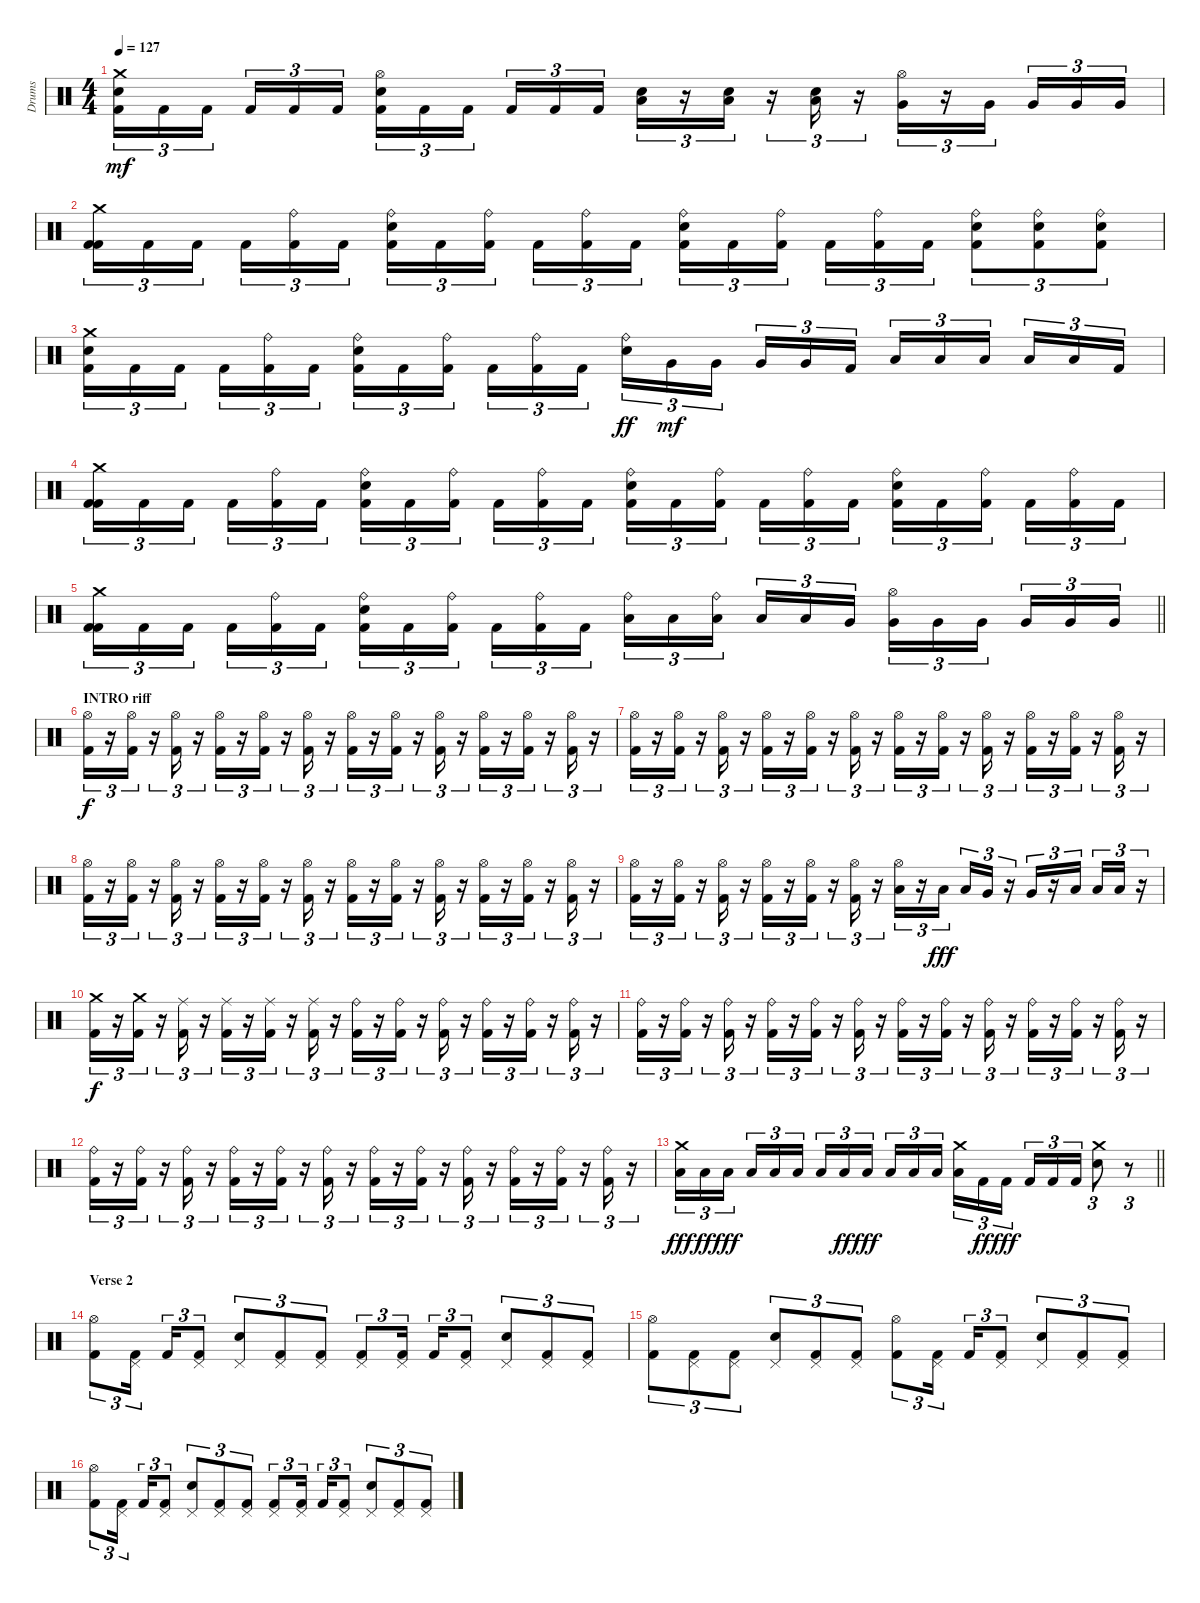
\track ("Drums" "Drums") {instrument percussion}
\staff {score}
\articulation defaults
\ts (4 4)
\tempo 127
\clef neutral
\ks c
("Crash medium (hit)" "Snare (hit) 2" "Kick (hit) 2").16{tu (3 2) dy mf} "Kick (hit) 2".16{tu (3 2)} "Kick (hit) 2".16{tu (3 2) beam splitsecondary} "Kick (hit) 2".16{tu (3 2)} "Kick (hit) 2".16{tu (3 2)} "Kick (hit) 2".16{tu (3 2)} ("Hi-Hat (open)" "Snare (hit) 2" "Kick (hit) 2").16{tu (3 2)} "Kick (hit) 2".16{tu (3 2)} "Kick (hit) 2".16{tu (3 2) beam splitsecondary} "Kick (hit) 2".16{tu (3 2)} "Kick (hit) 2".16{tu (3 2)} "Kick (hit) 2".16{tu (3 2)} ("Snare (hit) 2" "Low Tom (hit)").16{tu (3 2)} r.16{tu (3 2)} ("Snare (hit) 2" "Low Tom (hit)").16{tu (3 2)} r.16{tu (3 2)} ("Snare (hit) 2" "Low Tom (hit)").16{tu (3 2)} r.16{tu (3 2)} ("Hi-Hat (open)" "Very Low Tom (hit)").16{tu (3 2)} r.16{tu (3 2)} "Very Low Tom (hit)".16{tu (3 2) beam splitsecondary} "Very Low Tom (hit)".16{tu (3 2)} "Very Low Tom (hit)".16{tu (3 2)} "Very Low Tom (hit)".16{tu (3 2)} |
("Crash medium (hit)" "Kick (hit) 2" "Kick (hit) 2").16{tu (3 2)} "Kick (hit) 2".16{tu (3 2)} "Kick (hit) 2".16{tu (3 2) beam splitsecondary} "Kick (hit) 2".16{tu (3 2)} ("Ride (bell)" "Kick (hit) 2").16{tu (3 2)} "Kick (hit) 2".16{tu (3 2)} ("Ride (bell)" "Snare (hit) 2" "Kick (hit) 2").16{tu (3 2)} "Kick (hit) 2".16{tu (3 2)} ("Ride (bell)" "Kick (hit) 2").16{tu (3 2) beam splitsecondary} "Kick (hit) 2".16{tu (3 2)} ("Ride (bell)" "Kick (hit) 2").16{tu (3 2)} "Kick (hit) 2".16{tu (3 2)} ("Ride (bell)" "Snare (hit) 2" "Kick (hit) 2").16{tu (3 2)} "Kick (hit) 2".16{tu (3 2)} ("Ride (bell)" "Kick (hit) 2").16{tu (3 2) beam splitsecondary} "Kick (hit) 2".16{tu (3 2)} ("Ride (bell)" "Kick (hit) 2").16{tu (3 2)} "Kick (hit) 2".16{tu (3 2)} ("Ride (bell)" "Snare (hit) 2" "Kick (hit) 2").8{tu (3 2)} ("Ride (bell)" "Snare (hit) 2" "Kick (hit) 2").8{tu (3 2)} ("Ride (bell)" "Snare (hit) 2" "Kick (hit) 2").8{tu (3 2)} |
("Crash medium (hit)" "Snare (hit) 2" "Kick (hit) 2").16{tu (3 2)} "Kick (hit) 2".16{tu (3 2)} "Kick (hit) 2".16{tu (3 2) beam splitsecondary} "Kick (hit) 2".16{tu (3 2)} ("Ride (bell)" "Kick (hit) 2").16{tu (3 2)} "Kick (hit) 2".16{tu (3 2)} ("Ride (bell)" "Snare (hit) 2" "Kick (hit) 2").16{tu (3 2)} "Kick (hit) 2".16{tu (3 2)} ("Ride (bell)" "Kick (hit) 2").16{tu (3 2) beam splitsecondary} "Kick (hit) 2".16{tu (3 2)} ("Ride (bell)" "Kick (hit) 2").16{tu (3 2)} "Kick (hit) 2".16{tu (3 2)} ("Ride (bell)" "Snare (hit) 2").16{tu (3 2) dy ff} "Very Low Tom (hit)".16{tu (3 2) dy mf} "Very Low Tom (hit)".16{tu (3 2) beam splitsecondary} "Very Low Tom (hit)".16{tu (3 2)} "Very Low Tom (hit)".16{tu (3 2)} "Kick (hit) 2".16{tu (3 2)} "Low Floor Tom (hit)".16{tu (3 2)} "Low Floor Tom (hit)".16{tu (3 2)} "Low Floor Tom (hit)".16{tu (3 2) beam splitsecondary} "Low Floor Tom (hit)".16{tu (3 2)} "Low Floor Tom (hit)".16{tu (3 2)} "Kick (hit) 2".16{tu (3 2)} |
("Crash medium (hit)" "Kick (hit) 2" "Kick (hit) 2").16{tu (3 2)} "Kick (hit) 2".16{tu (3 2)} "Kick (hit) 2".16{tu (3 2) beam splitsecondary} "Kick (hit) 2".16{tu (3 2)} ("Ride (bell)" "Kick (hit) 2").16{tu (3 2)} "Kick (hit) 2".16{tu (3 2)} ("Ride (bell)" "Snare (hit) 2" "Kick (hit) 2").16{tu (3 2)} "Kick (hit) 2".16{tu (3 2)} ("Ride (bell)" "Kick (hit) 2").16{tu (3 2) beam splitsecondary} "Kick (hit) 2".16{tu (3 2)} ("Ride (bell)" "Kick (hit) 2").16{tu (3 2)} "Kick (hit) 2".16{tu (3 2)} ("Ride (bell)" "Snare (hit) 2" "Kick (hit) 2").16{tu (3 2)} "Kick (hit) 2".16{tu (3 2)} ("Ride (bell)" "Kick (hit) 2").16{tu (3 2) beam splitsecondary} "Kick (hit) 2".16{tu (3 2)} ("Ride (bell)" "Kick (hit) 2").16{tu (3 2)} "Kick (hit) 2".16{tu (3 2)} ("Ride (bell)" "Snare (hit) 2" "Kick (hit) 2").16{tu (3 2)} "Kick (hit) 2".16{tu (3 2)} ("Ride (bell)" "Kick (hit) 2").16{tu (3 2) beam splitsecondary} "Kick (hit) 2".16{tu (3 2)} ("Ride (bell)" "Kick (hit) 2").16{tu (3 2)} "Kick (hit) 2".16{tu (3 2)} |
\barLineRight lightlight
("Crash medium (hit)" "Kick (hit) 2" "Kick (hit) 2").16{tu (3 2)} "Kick (hit) 2".16{tu (3 2)} "Kick (hit) 2".16{tu (3 2) beam splitsecondary} "Kick (hit) 2".16{tu (3 2)} ("Ride (bell)" "Kick (hit) 2").16{tu (3 2)} "Kick (hit) 2".16{tu (3 2)} ("Ride (bell)" "Snare (hit) 2" "Kick (hit) 2").16{tu (3 2)} "Kick (hit) 2".16{tu (3 2)} ("Ride (bell)" "Kick (hit) 2").16{tu (3 2) beam splitsecondary} "Kick (hit) 2".16{tu (3 2)} ("Ride (bell)" "Kick (hit) 2").16{tu (3 2)} "Kick (hit) 2".16{tu (3 2)} ("Ride (bell)" "Low Tom (hit)").16{tu (3 2)} "Low Tom (hit)".16{tu (3 2)} ("Ride (bell)" "Low Tom (hit)").16{tu (3 2) beam splitsecondary} "Low Tom (hit)".16{tu (3 2)} "Low Tom (hit)".16{tu (3 2)} "Very Low Tom (hit)".16{tu (3 2)} ("Hi-Hat (open)" "Very Low Tom (hit)").16{tu (3 2)} "Very Low Tom (hit)".16{tu (3 2)} "Very Low Tom (hit)".16{tu (3 2) beam splitsecondary} "Very Low Tom (hit)".16{tu (3 2)} "Very Low Tom (hit)".16{tu (3 2)} "Very Low Tom (hit)".16{tu (3 2)} |
\section ("" "INTRO riff")
("Hi-Hat (open)" "Kick (hit) 2").16{tu (3 2) dy f} r.16{tu (3 2)} ("Hi-Hat (open)" "Kick (hit) 2").16{tu (3 2)} r.16{tu (3 2)} ("Hi-Hat (open)" "Kick (hit) 2").16{tu (3 2)} r.16{tu (3 2)} ("Hi-Hat (open)" "Kick (hit) 2").16{tu (3 2)} r.16{tu (3 2)} ("Hi-Hat (open)" "Kick (hit) 2").16{tu (3 2)} r.16{tu (3 2)} ("Hi-Hat (open)" "Kick (hit) 2").16{tu (3 2)} r.16{tu (3 2)} ("Hi-Hat (open)" "Kick (hit) 2").16{tu (3 2)} r.16{tu (3 2)} ("Hi-Hat (open)" "Kick (hit) 2").16{tu (3 2)} r.16{tu (3 2)} ("Hi-Hat (open)" "Kick (hit) 2").16{tu (3 2)} r.16{tu (3 2)} ("Hi-Hat (open)" "Kick (hit) 2").16{tu (3 2)} r.16{tu (3 2)} ("Hi-Hat (open)" "Kick (hit) 2").16{tu (3 2)} r.16{tu (3 2)} ("Hi-Hat (open)" "Kick (hit) 2").16{tu (3 2)} r.16{tu (3 2)} |
("Hi-Hat (open)" "Kick (hit) 2").16{tu (3 2)} r.16{tu (3 2)} ("Hi-Hat (open)" "Kick (hit) 2").16{tu (3 2)} r.16{tu (3 2)} ("Hi-Hat (open)" "Kick (hit) 2").16{tu (3 2)} r.16{tu (3 2)} ("Hi-Hat (open)" "Kick (hit) 2").16{tu (3 2)} r.16{tu (3 2)} ("Hi-Hat (open)" "Kick (hit) 2").16{tu (3 2)} r.16{tu (3 2)} ("Hi-Hat (open)" "Kick (hit) 2").16{tu (3 2)} r.16{tu (3 2)} ("Hi-Hat (open)" "Kick (hit) 2").16{tu (3 2)} r.16{tu (3 2)} ("Hi-Hat (open)" "Kick (hit) 2").16{tu (3 2)} r.16{tu (3 2)} ("Hi-Hat (open)" "Kick (hit) 2").16{tu (3 2)} r.16{tu (3 2)} ("Hi-Hat (open)" "Kick (hit) 2").16{tu (3 2)} r.16{tu (3 2)} ("Hi-Hat (open)" "Kick (hit) 2").16{tu (3 2)} r.16{tu (3 2)} ("Hi-Hat (open)" "Kick (hit) 2").16{tu (3 2)} r.16{tu (3 2)} |
("Hi-Hat (open)" "Kick (hit) 2").16{tu (3 2)} r.16{tu (3 2)} ("Hi-Hat (open)" "Kick (hit) 2").16{tu (3 2)} r.16{tu (3 2)} ("Hi-Hat (open)" "Kick (hit) 2").16{tu (3 2)} r.16{tu (3 2)} ("Hi-Hat (open)" "Kick (hit) 2").16{tu (3 2)} r.16{tu (3 2)} ("Hi-Hat (open)" "Kick (hit) 2").16{tu (3 2)} r.16{tu (3 2)} ("Hi-Hat (open)" "Kick (hit) 2").16{tu (3 2)} r.16{tu (3 2)} ("Hi-Hat (open)" "Kick (hit) 2").16{tu (3 2)} r.16{tu (3 2)} ("Hi-Hat (open)" "Kick (hit) 2").16{tu (3 2)} r.16{tu (3 2)} ("Hi-Hat (open)" "Kick (hit) 2").16{tu (3 2)} r.16{tu (3 2)} ("Hi-Hat (open)" "Kick (hit) 2").16{tu (3 2)} r.16{tu (3 2)} ("Hi-Hat (open)" "Kick (hit) 2").16{tu (3 2)} r.16{tu (3 2)} ("Hi-Hat (open)" "Kick (hit) 2").16{tu (3 2)} r.16{tu (3 2)} |
("Hi-Hat (open)" "Kick (hit) 2").16{tu (3 2)} r.16{tu (3 2)} ("Hi-Hat (open)" "Kick (hit) 2").16{tu (3 2)} r.16{tu (3 2)} ("Hi-Hat (open)" "Kick (hit) 2").16{tu (3 2)} r.16{tu (3 2)} ("Hi-Hat (open)" "Kick (hit) 2").16{tu (3 2)} r.16{tu (3 2)} ("Hi-Hat (open)" "Kick (hit) 2").16{tu (3 2)} r.16{tu (3 2)} ("Hi-Hat (open)" "Kick (hit) 2").16{tu (3 2)} r.16{tu (3 2)} ("Hi-Hat (open)" "Low Tom (hit)").16{tu (3 2)} r.16{tu (3 2)} "Low Tom (hit)".16{tu (3 2) dy fff beam splitsecondary} "Low Tom (hit)".16{tu (3 2)} "Very Low Tom (hit)".16{tu (3 2)} r.16{tu (3 2)} "Very Low Tom (hit)".16{tu (3 2)} r.16{tu (3 2)} "Low Floor Tom (hit)".16{tu (3 2) beam splitsecondary} "Low Floor Tom (hit)".16{tu (3 2)} "Low Floor Tom (hit)".16{tu (3 2)} r.16{tu (3 2)} |
("Crash medium (hit)" "Kick (hit) 2").16{tu (3 2) dy f} r.16{tu (3 2)} ("Crash medium (hit)" "Kick (hit) 2").16{tu (3 2)} r.16{tu (3 2)} ("Ride (middle)" "Kick (hit) 2").16{tu (3 2)} r.16{tu (3 2)} ("Ride (middle)" "Kick (hit) 2").16{tu (3 2)} r.16{tu (3 2)} ("Ride (middle)" "Kick (hit) 2").16{tu (3 2)} r.16{tu (3 2)} ("Ride (middle)" "Kick (hit) 2").16{tu (3 2)} r.16{tu (3 2)} ("Ride (bell)" "Kick (hit) 2").16{tu (3 2)} r.16{tu (3 2)} ("Ride (bell)" "Kick (hit) 2").16{tu (3 2)} r.16{tu (3 2)} ("Ride (bell)" "Kick (hit) 2").16{tu (3 2)} r.16{tu (3 2)} ("Ride (bell)" "Kick (hit) 2").16{tu (3 2)} r.16{tu (3 2)} ("Ride (bell)" "Kick (hit) 2").16{tu (3 2)} r.16{tu (3 2)} ("Ride (bell)" "Kick (hit) 2").16{tu (3 2)} r.16{tu (3 2)} |
("Ride (bell)" "Kick (hit) 2").16{tu (3 2)} r.16{tu (3 2)} ("Ride (bell)" "Kick (hit) 2").16{tu (3 2)} r.16{tu (3 2)} ("Ride (bell)" "Kick (hit) 2").16{tu (3 2)} r.16{tu (3 2)} ("Ride (bell)" "Kick (hit) 2").16{tu (3 2)} r.16{tu (3 2)} ("Ride (bell)" "Kick (hit) 2").16{tu (3 2)} r.16{tu (3 2)} ("Ride (bell)" "Kick (hit) 2").16{tu (3 2)} r.16{tu (3 2)} ("Ride (bell)" "Kick (hit) 2").16{tu (3 2)} r.16{tu (3 2)} ("Ride (bell)" "Kick (hit) 2").16{tu (3 2)} r.16{tu (3 2)} ("Ride (bell)" "Kick (hit) 2").16{tu (3 2)} r.16{tu (3 2)} ("Ride (bell)" "Kick (hit) 2").16{tu (3 2)} r.16{tu (3 2)} ("Ride (bell)" "Kick (hit) 2").16{tu (3 2)} r.16{tu (3 2)} ("Ride (bell)" "Kick (hit) 2").16{tu (3 2)} r.16{tu (3 2)} |
("Ride (bell)" "Kick (hit) 2").16{tu (3 2)} r.16{tu (3 2)} ("Ride (bell)" "Kick (hit) 2").16{tu (3 2)} r.16{tu (3 2)} ("Ride (bell)" "Kick (hit) 2").16{tu (3 2)} r.16{tu (3 2)} ("Ride (bell)" "Kick (hit) 2").16{tu (3 2)} r.16{tu (3 2)} ("Ride (bell)" "Kick (hit) 2").16{tu (3 2)} r.16{tu (3 2)} ("Ride (bell)" "Kick (hit) 2").16{tu (3 2)} r.16{tu (3 2)} ("Ride (bell)" "Kick (hit) 2").16{tu (3 2)} r.16{tu (3 2)} ("Ride (bell)" "Kick (hit) 2").16{tu (3 2)} r.16{tu (3 2)} ("Ride (bell)" "Kick (hit) 2").16{tu (3 2)} r.16{tu (3 2)} ("Ride (bell)" "Kick (hit) 2").16{tu (3 2)} r.16{tu (3 2)} ("Ride (bell)" "Kick (hit) 2").16{tu (3 2)} r.16{tu (3 2)} ("Ride (bell)" "Kick (hit) 2").16{tu (3 2)} r.16{tu (3 2)} |
\barLineRight lightlight
("Crash medium (hit)" "Low Tom (hit)").16{tu (3 2) dy fff} "Low Tom (hit)".16{tu (3 2) dy ff} "Low Tom (hit)".16{tu (3 2) dy fff beam splitsecondary} "Low Tom (hit)".16{tu (3 2)} "Low Tom (hit)".16{tu (3 2)} "Low Tom (hit)".16{tu (3 2)} "Low Tom (hit)".16{tu (3 2)} "Low Floor Tom (hit)".16{tu (3 2) dy ff} "Low Floor Tom (hit)".16{tu (3 2) dy fff beam splitsecondary} "Low Floor Tom (hit)".16{tu (3 2)} "Low Floor Tom (hit)".16{tu (3 2)} "Low Floor Tom (hit)".16{tu (3 2)} ("Crash medium (hit)" "Low Floor Tom (hit)").16{tu (3 2)} "Kick (hit) 2".16{tu (3 2) dy ff} "Kick (hit) 2".16{tu (3 2) dy fff beam splitsecondary} "Kick (hit) 2".16{tu (3 2)} "Kick (hit) 2".16{tu (3 2)} "Kick (hit) 2".16{tu (3 2)} ("Crash medium (hit)" "Snare (hit) 2").8{tu (3 2)} r.8{tu (3 2)} |
\section ("" "Verse 2")
("Hi-Hat (open)" "Kick (hit) 2").8{tu (3 2)} ("Pedal Hi-Hat (hit)" "Kick (hit) 2").16{tu (3 2) beam splitsecondary} "Kick (hit) 2".16{tu (3 2)} ("Pedal Hi-Hat (hit)" "Kick (hit) 2").8{tu (3 2)} ("Pedal Hi-Hat (hit)" "Snare (hit) 2").8{tu (3 2)} ("Pedal Hi-Hat (hit)" "Kick (hit) 2").8{tu (3 2)} ("Pedal Hi-Hat (hit)" "Kick (hit) 2").8{tu (3 2)} ("Pedal Hi-Hat (hit)" "Kick (hit) 2").8{tu (3 2)} ("Pedal Hi-Hat (hit)" "Kick (hit) 2").16{tu (3 2) beam splitsecondary} "Kick (hit) 2".16{tu (3 2)} ("Pedal Hi-Hat (hit)" "Kick (hit) 2").8{tu (3 2)} ("Pedal Hi-Hat (hit)" "Snare (hit) 2").8{tu (3 2)} ("Pedal Hi-Hat (hit)" "Kick (hit) 2").8{tu (3 2)} ("Pedal Hi-Hat (hit)" "Kick (hit) 2").8{tu (3 2)} |
("Hi-Hat (open)" "Kick (hit) 2").8{tu (3 2)} ("Pedal Hi-Hat (hit)" "Kick (hit) 2").8{tu (3 2)} ("Pedal Hi-Hat (hit)" "Kick (hit) 2").8{tu (3 2)} ("Pedal Hi-Hat (hit)" "Snare (hit) 2").8{tu (3 2)} ("Pedal Hi-Hat (hit)" "Kick (hit) 2").8{tu (3 2)} ("Pedal Hi-Hat (hit)" "Kick (hit) 2").8{tu (3 2)} ("Hi-Hat (open)" "Kick (hit) 2").8{tu (3 2)} ("Pedal Hi-Hat (hit)" "Kick (hit) 2").16{tu (3 2) beam splitsecondary} "Kick (hit) 2".16{tu (3 2)} ("Pedal Hi-Hat (hit)" "Kick (hit) 2").8{tu (3 2)} ("Pedal Hi-Hat (hit)" "Snare (hit) 2").8{tu (3 2)} ("Pedal Hi-Hat (hit)" "Kick (hit) 2").8{tu (3 2)} ("Pedal Hi-Hat (hit)" "Kick (hit) 2").8{tu (3 2)} |
("Hi-Hat (open)" "Kick (hit) 2").8{tu (3 2)} ("Pedal Hi-Hat (hit)" "Kick (hit) 2").16{tu (3 2) beam splitsecondary} "Kick (hit) 2".16{tu (3 2)} ("Pedal Hi-Hat (hit)" "Kick (hit) 2").8{tu (3 2)} ("Pedal Hi-Hat (hit)" "Snare (hit) 2").8{tu (3 2)} ("Pedal Hi-Hat (hit)" "Kick (hit) 2").8{tu (3 2)} ("Pedal Hi-Hat (hit)" "Kick (hit) 2").8{tu (3 2)} ("Pedal Hi-Hat (hit)" "Kick (hit) 2").8{tu (3 2)} ("Pedal Hi-Hat (hit)" "Kick (hit) 2").16{tu (3 2) beam splitsecondary} "Kick (hit) 2".16{tu (3 2)} ("Pedal Hi-Hat (hit)" "Kick (hit) 2").8{tu (3 2)} ("Pedal Hi-Hat (hit)" "Snare (hit) 2").8{tu (3 2)} ("Pedal Hi-Hat (hit)" "Kick (hit) 2").8{tu (3 2)} ("Pedal Hi-Hat (hit)" "Kick (hit) 2").8{tu (3 2)}
